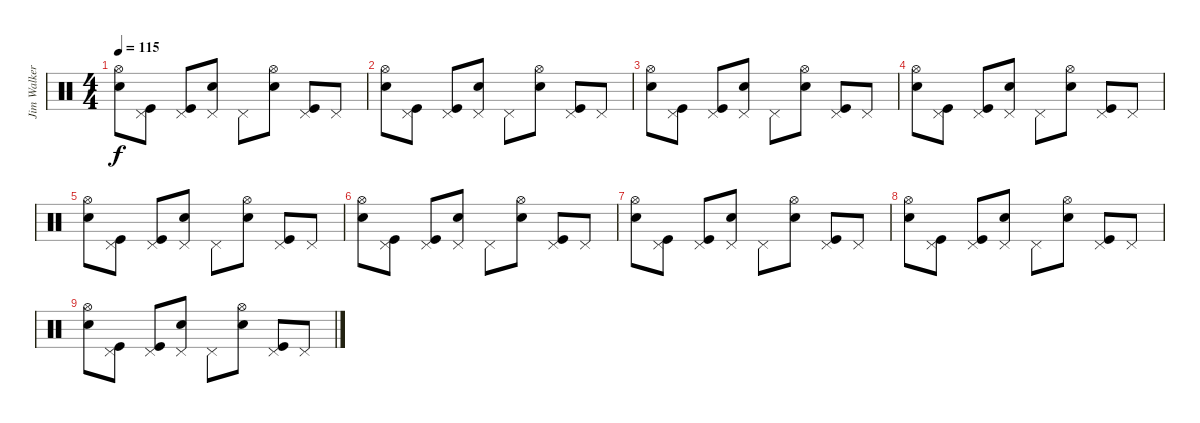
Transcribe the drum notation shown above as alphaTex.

\track ("Jim Walker-Drums" "Jim Walker") {instrument percussion}
\staff {score}
\articulation defaults
\ts (4 4)
\tempo 115
\clef neutral
\ks c
("Hi-Hat (open)" "Electric Snare (hit)").8{dy f} ("Pedal Hi-Hat (hit)" "Kick (hit)").8 ("Pedal Hi-Hat (hit)" "Kick (hit)").8 ("Pedal Hi-Hat (hit)" "Electric Snare (hit)").8 "Pedal Hi-Hat (hit)".8 ("Hi-Hat (open)" "Electric Snare (hit)").8 ("Pedal Hi-Hat (hit)" "Kick (hit)").8 "Pedal Hi-Hat (hit)".8 |
("Hi-Hat (open)" "Electric Snare (hit)").8 ("Pedal Hi-Hat (hit)" "Kick (hit)").8 ("Pedal Hi-Hat (hit)" "Kick (hit)").8 ("Pedal Hi-Hat (hit)" "Electric Snare (hit)").8 "Pedal Hi-Hat (hit)".8 ("Hi-Hat (open)" "Electric Snare (hit)").8 ("Pedal Hi-Hat (hit)" "Kick (hit)").8 "Pedal Hi-Hat (hit)".8 |
("Hi-Hat (open)" "Electric Snare (hit)").8 ("Pedal Hi-Hat (hit)" "Kick (hit)").8 ("Pedal Hi-Hat (hit)" "Kick (hit)").8 ("Pedal Hi-Hat (hit)" "Electric Snare (hit)").8 "Pedal Hi-Hat (hit)".8 ("Hi-Hat (open)" "Electric Snare (hit)").8 ("Pedal Hi-Hat (hit)" "Kick (hit)").8 "Pedal Hi-Hat (hit)".8 |
("Hi-Hat (open)" "Electric Snare (hit)").8 ("Pedal Hi-Hat (hit)" "Kick (hit)").8 ("Pedal Hi-Hat (hit)" "Kick (hit)").8 ("Pedal Hi-Hat (hit)" "Electric Snare (hit)").8 "Pedal Hi-Hat (hit)".8 ("Hi-Hat (open)" "Electric Snare (hit)").8 ("Pedal Hi-Hat (hit)" "Kick (hit)").8 "Pedal Hi-Hat (hit)".8 |
("Hi-Hat (open)" "Electric Snare (hit)").8{volume 1} ("Pedal Hi-Hat (hit)" "Kick (hit)").8 ("Pedal Hi-Hat (hit)" "Kick (hit)").8 ("Pedal Hi-Hat (hit)" "Electric Snare (hit)").8 "Pedal Hi-Hat (hit)".8 ("Hi-Hat (open)" "Electric Snare (hit)").8 ("Pedal Hi-Hat (hit)" "Kick (hit)").8 "Pedal Hi-Hat (hit)".8 |
("Hi-Hat (open)" "Electric Snare (hit)").8 ("Pedal Hi-Hat (hit)" "Kick (hit)").8 ("Pedal Hi-Hat (hit)" "Kick (hit)").8 ("Pedal Hi-Hat (hit)" "Electric Snare (hit)").8 "Pedal Hi-Hat (hit)".8 ("Hi-Hat (open)" "Electric Snare (hit)").8 ("Pedal Hi-Hat (hit)" "Kick (hit)").8 "Pedal Hi-Hat (hit)".8 |
("Hi-Hat (open)" "Electric Snare (hit)").8 ("Pedal Hi-Hat (hit)" "Kick (hit)").8 ("Pedal Hi-Hat (hit)" "Kick (hit)").8 ("Pedal Hi-Hat (hit)" "Electric Snare (hit)").8 "Pedal Hi-Hat (hit)".8 ("Hi-Hat (open)" "Electric Snare (hit)").8 ("Pedal Hi-Hat (hit)" "Kick (hit)").8 "Pedal Hi-Hat (hit)".8 |
("Hi-Hat (open)" "Electric Snare (hit)").8 ("Pedal Hi-Hat (hit)" "Kick (hit)").8 ("Pedal Hi-Hat (hit)" "Kick (hit)").8 ("Pedal Hi-Hat (hit)" "Electric Snare (hit)").8 "Pedal Hi-Hat (hit)".8 ("Hi-Hat (open)" "Electric Snare (hit)").8 ("Pedal Hi-Hat (hit)" "Kick (hit)").8 "Pedal Hi-Hat (hit)".8 |
("Hi-Hat (open)" "Electric Snare (hit)").8 ("Pedal Hi-Hat (hit)" "Kick (hit)").8 ("Pedal Hi-Hat (hit)" "Kick (hit)").8 ("Pedal Hi-Hat (hit)" "Electric Snare (hit)").8 "Pedal Hi-Hat (hit)".8 ("Hi-Hat (open)" "Electric Snare (hit)").8 ("Pedal Hi-Hat (hit)" "Kick (hit)").8 "Pedal Hi-Hat (hit)".8
